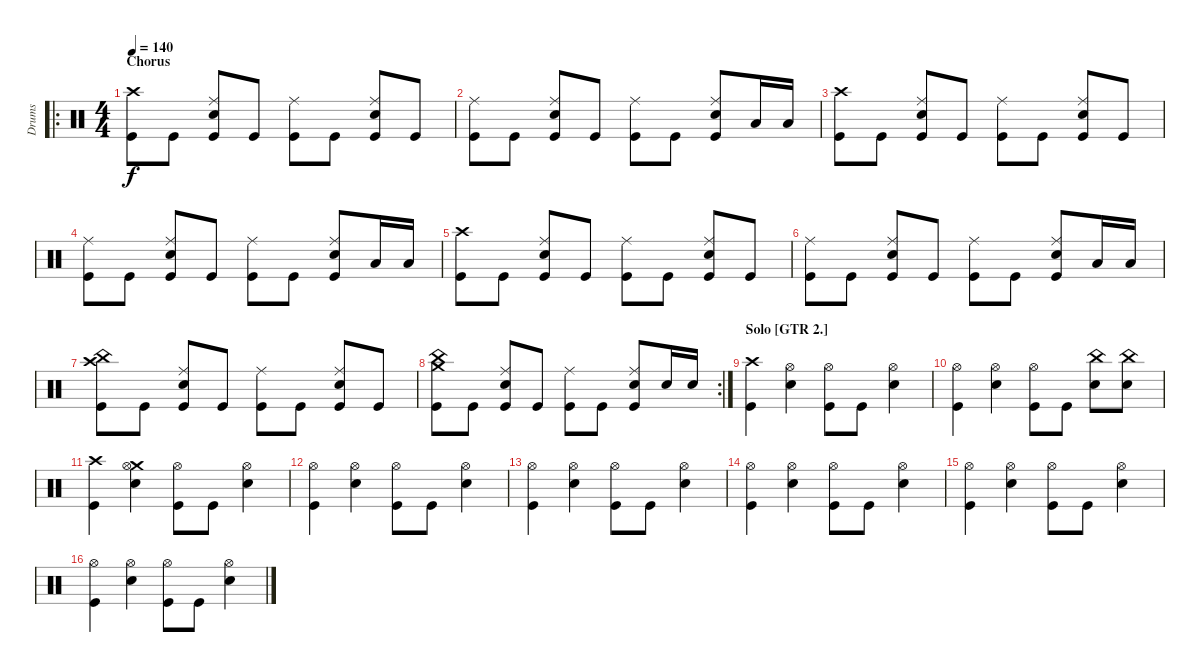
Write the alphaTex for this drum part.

\track ("Drums" "Drums") {instrument percussion}
\staff {score}
\articulation defaults
\ro
\ts (4 4)
\section ("" "Chorus")
\tempo 140
\clef neutral
\ks c
("Crash high (hit)" "Kick (hit)").8{dy f} "Kick (hit)".8 ("Ride (middle)" "Snare (hit) 2" "Kick (hit)").8 "Kick (hit)".8 ("Ride (middle)" "Kick (hit)").8 "Kick (hit)".8 ("Ride (middle)" "Snare (hit) 2" "Kick (hit)").8 "Kick (hit)".8 |
("Ride (middle)" "Kick (hit)").8 "Kick (hit)".8 ("Ride (middle)" "Snare (hit) 2" "Kick (hit)").8 "Kick (hit)".8 ("Ride (middle)" "Kick (hit)").8 "Kick (hit)".8 ("Ride (middle)" "Snare (hit) 2" "Kick (hit)").8 "Low Tom (hit)".16 "Low Tom (hit)".16 |
("Crash high (hit)" "Kick (hit)").8 "Kick (hit)".8 ("Ride (middle)" "Snare (hit) 2" "Kick (hit)").8 "Kick (hit)".8 ("Ride (middle)" "Kick (hit)").8 "Kick (hit)".8 ("Ride (middle)" "Snare (hit) 2" "Kick (hit)").8 "Kick (hit)".8 |
("Ride (middle)" "Kick (hit)").8 "Kick (hit)".8 ("Ride (middle)" "Snare (hit) 2" "Kick (hit)").8 "Kick (hit)".8 ("Ride (middle)" "Kick (hit)").8 "Kick (hit)".8 ("Ride (middle)" "Snare (hit) 2" "Kick (hit)").8 "Low Tom (hit)".16 "Low Tom (hit)".16 |
("Crash high (hit)" "Kick (hit)").8 "Kick (hit)".8 ("Ride (middle)" "Snare (hit) 2" "Kick (hit)").8 "Kick (hit)".8 ("Ride (middle)" "Kick (hit)").8 "Kick (hit)".8 ("Ride (middle)" "Snare (hit) 2" "Kick (hit)").8 "Kick (hit)".8 |
("Ride (middle)" "Kick (hit)").8 "Kick (hit)".8 ("Ride (middle)" "Snare (hit) 2" "Kick (hit)").8 "Kick (hit)".8 ("Ride (middle)" "Kick (hit)").8 "Kick (hit)".8 ("Ride (middle)" "Snare (hit) 2" "Kick (hit)").8 "Low Tom (hit)".16 "Low Tom (hit)".16 |
("Crash high (hit)" "China (hit)" "Kick (hit)").8 "Kick (hit)".8 ("Ride (middle)" "Snare (hit) 2" "Kick (hit)").8 "Kick (hit)".8 ("Ride (middle)" "Kick (hit)").8 "Kick (hit)".8 ("Ride (middle)" "Snare (hit) 2" "Kick (hit)").8 "Kick (hit)".8 |
\rc 2
("China (hit)" "Crash medium (hit)" "Kick (hit)").8 "Kick (hit)".8 ("Ride (middle)" "Snare (hit) 2" "Kick (hit)").8 "Kick (hit)".8 ("Ride (middle)" "Kick (hit)").8 "Kick (hit)".8 ("Ride (middle)" "Snare (hit) 2" "Kick (hit)").8 "Snare (hit) 2".16 "Snare (hit) 2".16 |
\section ("" "Solo [GTR 2.]")
("Crash high (hit)" "Kick (hit)").4 ("Hi-Hat (open)" "Snare (hit) 2").4 ("Hi-Hat (open)" "Kick (hit)").8 "Kick (hit)".8 ("Hi-Hat (open)" "Snare (hit) 2").4 |
("Hi-Hat (open)" "Kick (hit)").4 ("Hi-Hat (open)" "Snare (hit) 2").4 ("Hi-Hat (open)" "Kick (hit)").8 "Kick (hit)".8 ("China (hit)" "Snare (hit) 2").8 ("China (hit)" "Snare (hit) 2").8 |
("Crash high (hit)" "Kick (hit)").4 ("Crash medium (hit)" "Hi-Hat (open)" "Snare (hit) 2").4 ("Hi-Hat (open)" "Kick (hit)").8 "Kick (hit)".8 ("Hi-Hat (open)" "Snare (hit) 2").4 |
("Hi-Hat (open)" "Kick (hit)").4 ("Hi-Hat (open)" "Snare (hit) 2").4 ("Hi-Hat (open)" "Kick (hit)").8 "Kick (hit)".8 ("Hi-Hat (open)" "Snare (hit) 2").4 |
("Hi-Hat (open)" "Kick (hit)").4 ("Hi-Hat (open)" "Snare (hit) 2").4 ("Hi-Hat (open)" "Kick (hit)").8 "Kick (hit)".8 ("Hi-Hat (open)" "Snare (hit) 2").4 |
("Hi-Hat (open)" "Kick (hit)").4 ("Hi-Hat (open)" "Snare (hit) 2").4 ("Hi-Hat (open)" "Kick (hit)").8 "Kick (hit)".8 ("Hi-Hat (open)" "Snare (hit) 2").4 |
("Hi-Hat (open)" "Kick (hit)").4 ("Hi-Hat (open)" "Snare (hit) 2").4 ("Hi-Hat (open)" "Kick (hit)").8 "Kick (hit)".8 ("Hi-Hat (open)" "Snare (hit) 2").4 |
("Hi-Hat (open)" "Kick (hit)").4 ("Hi-Hat (open)" "Snare (hit) 2").4 ("Hi-Hat (open)" "Kick (hit)").8 "Kick (hit)".8 ("Hi-Hat (open)" "Snare (hit) 2").4
